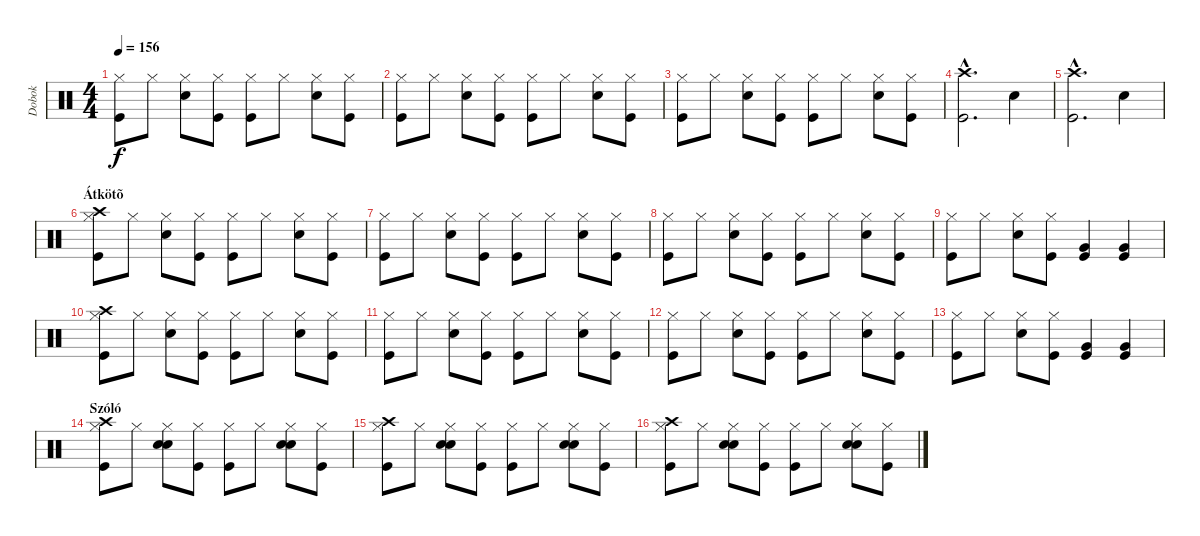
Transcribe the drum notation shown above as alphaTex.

\track ("Dobok" "Dobok") {instrument percussion}
\staff {score}
\articulation defaults
\ts (4 4)
\tempo 156
\clef neutral
\ks c
("Hi-Hat (closed)" "Kick (hit)").8{dy f} "Hi-Hat (closed)".8 ("Hi-Hat (closed)" "Electric Snare (hit)").8 ("Hi-Hat (closed)" "Kick (hit)").8 ("Hi-Hat (closed)" "Kick (hit)").8 "Hi-Hat (closed)".8 ("Hi-Hat (closed)" "Electric Snare (hit)").8 ("Hi-Hat (closed)" "Kick (hit)").8 |
("Hi-Hat (closed)" "Kick (hit)").8 "Hi-Hat (closed)".8 ("Hi-Hat (closed)" "Electric Snare (hit)").8 ("Hi-Hat (closed)" "Kick (hit)").8 ("Hi-Hat (closed)" "Kick (hit)").8 "Hi-Hat (closed)".8 ("Hi-Hat (closed)" "Electric Snare (hit)").8 ("Hi-Hat (closed)" "Kick (hit)").8 |
("Hi-Hat (closed)" "Kick (hit)").8 "Hi-Hat (closed)".8 ("Hi-Hat (closed)" "Electric Snare (hit)").8 ("Hi-Hat (closed)" "Kick (hit)").8 ("Hi-Hat (closed)" "Kick (hit)").8 "Hi-Hat (closed)".8 ("Hi-Hat (closed)" "Electric Snare (hit)").8 ("Hi-Hat (closed)" "Kick (hit)").8 |
("Crash high (hit)"{hac} "Kick (hit)"{hac}).2{d} "Electric Snare (hit)".4 |
("Crash high (hit)"{hac} "Kick (hit)"{hac}).2{d} "Electric Snare (hit)".4 |
\section ("" "Átkötõ")
("Hi-Hat (closed)" "Crash high (hit)" "Kick (hit)").8 "Hi-Hat (closed)".8 ("Hi-Hat (closed)" "Electric Snare (hit)").8 ("Hi-Hat (closed)" "Kick (hit)").8 ("Hi-Hat (closed)" "Kick (hit)").8 "Hi-Hat (closed)".8 ("Hi-Hat (closed)" "Electric Snare (hit)").8 ("Hi-Hat (closed)" "Kick (hit)").8 |
("Hi-Hat (closed)" "Kick (hit)").8 "Hi-Hat (closed)".8 ("Hi-Hat (closed)" "Electric Snare (hit)").8 ("Hi-Hat (closed)" "Kick (hit)").8 ("Hi-Hat (closed)" "Kick (hit)").8 "Hi-Hat (closed)".8 ("Hi-Hat (closed)" "Electric Snare (hit)").8 ("Hi-Hat (closed)" "Kick (hit)").8 |
("Hi-Hat (closed)" "Kick (hit)").8 "Hi-Hat (closed)".8 ("Hi-Hat (closed)" "Electric Snare (hit)").8 ("Hi-Hat (closed)" "Kick (hit)").8 ("Hi-Hat (closed)" "Kick (hit)").8 "Hi-Hat (closed)".8 ("Hi-Hat (closed)" "Electric Snare (hit)").8 ("Hi-Hat (closed)" "Kick (hit)").8 |
("Hi-Hat (closed)" "Kick (hit)").8 "Hi-Hat (closed)".8 ("Hi-Hat (closed)" "Electric Snare (hit)").8 ("Hi-Hat (closed)" "Kick (hit)").8 ("Very Low Tom (hit)" "Kick (hit)").4 ("Very Low Tom (hit)" "Kick (hit)").4 |
("Hi-Hat (closed)" "Crash high (hit)" "Kick (hit)").8 "Hi-Hat (closed)".8 ("Hi-Hat (closed)" "Electric Snare (hit)").8 ("Hi-Hat (closed)" "Kick (hit)").8 ("Hi-Hat (closed)" "Kick (hit)").8 "Hi-Hat (closed)".8 ("Hi-Hat (closed)" "Electric Snare (hit)").8 ("Hi-Hat (closed)" "Kick (hit)").8 |
("Hi-Hat (closed)" "Kick (hit)").8 "Hi-Hat (closed)".8 ("Hi-Hat (closed)" "Electric Snare (hit)").8 ("Hi-Hat (closed)" "Kick (hit)").8 ("Hi-Hat (closed)" "Kick (hit)").8 "Hi-Hat (closed)".8 ("Hi-Hat (closed)" "Electric Snare (hit)").8 ("Hi-Hat (closed)" "Kick (hit)").8 |
("Hi-Hat (closed)" "Kick (hit)").8 "Hi-Hat (closed)".8 ("Hi-Hat (closed)" "Electric Snare (hit)").8 ("Hi-Hat (closed)" "Kick (hit)").8 ("Hi-Hat (closed)" "Kick (hit)").8 "Hi-Hat (closed)".8 ("Hi-Hat (closed)" "Electric Snare (hit)").8 ("Hi-Hat (closed)" "Kick (hit)").8 |
("Hi-Hat (closed)" "Kick (hit)").8 "Hi-Hat (closed)".8 ("Hi-Hat (closed)" "Electric Snare (hit)").8 ("Hi-Hat (closed)" "Kick (hit)").8 ("Very Low Tom (hit)" "Kick (hit)").4 ("Very Low Tom (hit)" "Kick (hit)").4 |
\section ("" "Szóló")
("Hi-Hat (closed)" "Crash high (hit)" "Kick (hit)").8 "Hi-Hat (closed)".8 ("Hi-Hat (closed)" "Electric Snare (hit)" "Snare (hit) 2").8 ("Hi-Hat (closed)" "Kick (hit)").8 ("Hi-Hat (closed)" "Kick (hit)").8 "Hi-Hat (closed)".8 ("Hi-Hat (closed)" "Electric Snare (hit)" "Snare (hit) 2").8 ("Hi-Hat (closed)" "Kick (hit)").8 |
("Hi-Hat (closed)" "Crash high (hit)" "Kick (hit)").8 "Hi-Hat (closed)".8 ("Hi-Hat (closed)" "Electric Snare (hit)" "Snare (hit) 2").8 ("Hi-Hat (closed)" "Kick (hit)").8 ("Hi-Hat (closed)" "Kick (hit)").8 "Hi-Hat (closed)".8 ("Hi-Hat (closed)" "Electric Snare (hit)" "Snare (hit) 2").8 ("Hi-Hat (closed)" "Kick (hit)").8 |
("Hi-Hat (closed)" "Crash high (hit)" "Kick (hit)").8 "Hi-Hat (closed)".8 ("Hi-Hat (closed)" "Electric Snare (hit)" "Snare (hit) 2").8 ("Hi-Hat (closed)" "Kick (hit)").8 ("Hi-Hat (closed)" "Kick (hit)").8 "Hi-Hat (closed)".8 ("Hi-Hat (closed)" "Electric Snare (hit)" "Snare (hit) 2").8 ("Hi-Hat (closed)" "Kick (hit)").8
